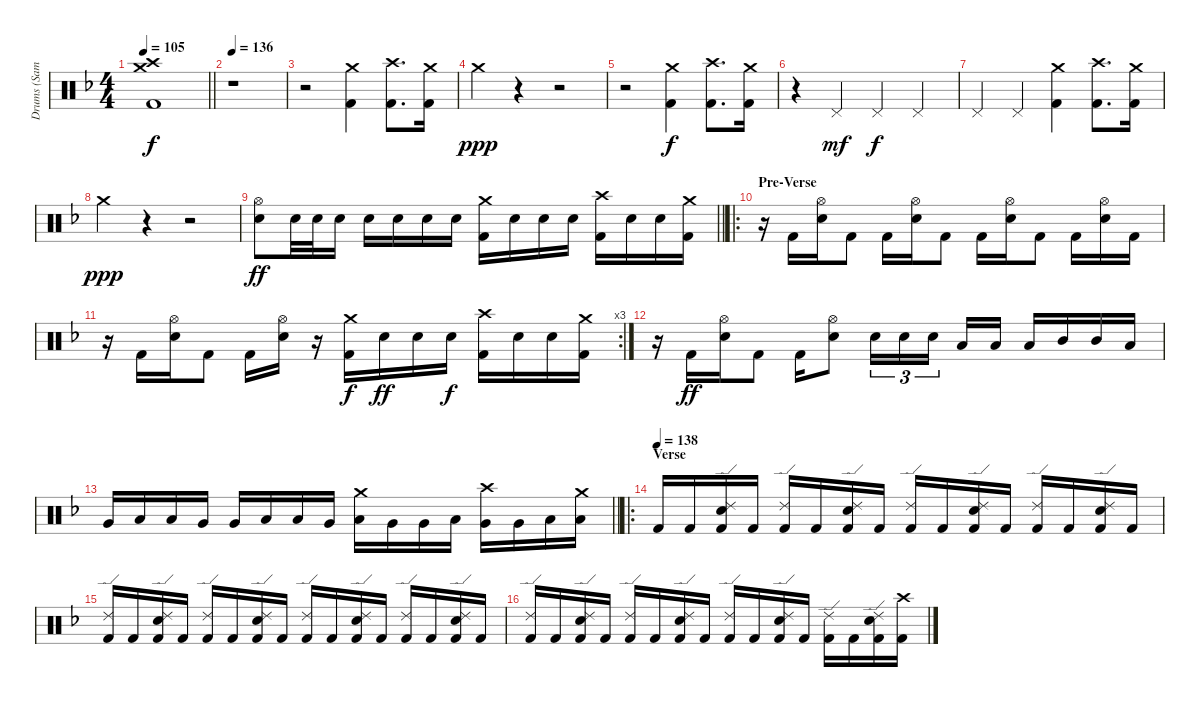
\track ("Drums (Samuelson)" "Drums (Sam") {instrument percussion}
\staff {score}
\articulation defaults
\ts (4 4)
\tempo 105
\clef neutral
\barLineRight lightlight
\ks f
("Crash medium (hit)" "Crash high (hit)" "Kick (hit) 2").1{dy f} |
\tempo 136
r.1 |
r.2 ("Crash medium (hit)" "Kick (hit) 2").4 ("Crash high (hit)" "Kick (hit) 2").8{d} ("Crash medium (hit)" "Kick (hit) 2").16 |
"Crash medium (hit)".4{dy ppp} r.4 r.2 |
r.2 ("Crash medium (hit)" "Kick (hit) 2").4{dy f} ("Crash high (hit)" "Kick (hit) 2").8{d} ("Crash medium (hit)" "Kick (hit) 2").16 |
r.4 "Pedal Hi-Hat (hit)".4{dy mf} "Pedal Hi-Hat (hit)".4{dy f} "Pedal Hi-Hat (hit)".4 |
"Pedal Hi-Hat (hit)".4 "Pedal Hi-Hat (hit)".4 ("Crash medium (hit)" "Kick (hit) 2").4 ("Crash high (hit)" "Kick (hit) 2").8{d} ("Crash medium (hit)" "Kick (hit) 2").16 |
"Crash medium (hit)".4{dy ppp} r.4 r.2 |
\barLineRight lightlight
("Hi-Hat (open)" "Snare (hit) 2").8{dy ff} "Snare (hit) 2".32 "Snare (hit) 2".32 "Snare (hit) 2".16 "Snare (hit) 2".16 "Snare (hit) 2".16 "Snare (hit) 2".16 "Snare (hit) 2".16 ("Crash medium (hit)" "Kick (hit) 2").16 "Snare (hit) 2".16 "Snare (hit) 2".16 "Snare (hit) 2".16 ("Crash high (hit)" "Kick (hit) 2").16 "Snare (hit) 2".16 "Snare (hit) 2".16 ("Crash medium (hit)" "Kick (hit) 2").16 |
\ro
\section ("" "Pre-Verse")
r.16 "Kick (hit) 2".16 ("Hi-Hat (open)" "Snare (hit) 2").16 "Kick (hit) 2".8 "Kick (hit) 2".16 ("Hi-Hat (open)" "Snare (hit) 2").16 "Kick (hit) 2".8 "Kick (hit) 2".16 ("Hi-Hat (open)" "Snare (hit) 2").16 "Kick (hit) 2".8 "Kick (hit) 2".16 ("Hi-Hat (open)" "Snare (hit) 2").16 "Kick (hit) 2".16 |
\rc 3
r.16 "Kick (hit) 2".16 ("Hi-Hat (open)" "Snare (hit) 2").16 "Kick (hit) 2".8 "Kick (hit) 2".16 ("Hi-Hat (open)" "Snare (hit) 2").16 r.16 ("Crash medium (hit)" "Kick (hit) 2").16{dy f} "Snare (hit) 2".16{dy ff} "Snare (hit) 2".16 "Snare (hit) 2".16{dy f} ("Crash high (hit)" "Kick (hit) 2").16 "Snare (hit) 2".16 "Snare (hit) 2".16 ("Crash medium (hit)" "Kick (hit) 2").16 |
r.16 "Kick (hit) 2".16{dy ff} ("Hi-Hat (open)" "Snare (hit) 2").16 "Kick (hit) 2".8 "Kick (hit) 2".16 ("Hi-Hat (open)" "Snare (hit) 2").8 "Snare (hit) 2".16{tu (3 2)} "Snare (hit) 2".16{tu (3 2)} "Snare (hit) 2".16{tu (3 2) beam splitsecondary} "Low Tom (hit)".16 "Low Tom (hit)".16 "Low Tom (hit)".16 "Mid Tom (hit)".16 "Mid Tom (hit)".16 "Low Tom (hit)".16 |
\barLineRight lightlight "Very Low Tom (hit)".16 "Low Tom (hit)".16 "Low Tom (hit)".16 "Very Low Tom (hit)".16 "Very Low Tom (hit)".16 "Low Floor Tom (hit)".16 "Low Tom (hit)".16 "Very Low Tom (hit)".16
("Crash medium (hit)" "Low Tom (hit)").16 "Very Low Tom (hit)".16 "Very Low Tom (hit)".16 "Low Floor Tom (hit)".16 ("Crash high (hit)" "Very Low Tom (hit)").16 "Very Low Tom (hit)".16 "Low Floor Tom (hit)".16 ("Crash medium (hit)" "Low Floor Tom (hit)").16 |
\ro
\section ("" "Verse")
\tempo (138)
"Kick (hit) 2".16 "Kick (hit) 2".16 ("Ride (edge) 2" "Snare (hit) 2" "Kick (hit) 2").16 "Kick (hit) 2".16 ("Ride (edge) 2" "Kick (hit) 2").16 "Kick (hit) 2".16 ("Ride (edge) 2" "Snare (hit) 2" "Kick (hit) 2").16 "Kick (hit) 2".16 ("Ride (edge) 2" "Kick (hit) 2").16 "Kick (hit) 2".16 ("Ride (edge) 2" "Snare (hit) 2" "Kick (hit) 2").16 "Kick (hit) 2".16 ("Ride (edge) 2" "Kick (hit) 2").16 "Kick (hit) 2".16 ("Ride (edge) 2" "Snare (hit) 2" "Kick (hit) 2").16 "Kick (hit) 2".16 |
("Ride (edge) 2" "Kick (hit) 2").16 "Kick (hit) 2".16 ("Ride (edge) 2" "Snare (hit) 2" "Kick (hit) 2").16 "Kick (hit) 2".16 ("Ride (edge) 2" "Kick (hit) 2").16 "Kick (hit) 2".16 ("Ride (edge) 2" "Snare (hit) 2" "Kick (hit) 2").16 "Kick (hit) 2".16 ("Ride (edge) 2" "Kick (hit) 2").16 "Kick (hit) 2".16 ("Ride (edge) 2" "Snare (hit) 2" "Kick (hit) 2").16 "Kick (hit) 2".16 ("Ride (edge) 2" "Kick (hit) 2").16 "Kick (hit) 2".16 ("Ride (edge) 2" "Snare (hit) 2" "Kick (hit) 2").16 "Kick (hit) 2".16 |
("Ride (edge) 2" "Kick (hit) 2").16 "Kick (hit) 2".16 ("Ride (edge) 2" "Snare (hit) 2" "Kick (hit) 2").16 "Kick (hit) 2".16 ("Ride (edge) 2" "Kick (hit) 2").16 "Kick (hit) 2".16 ("Ride (edge) 2" "Snare (hit) 2" "Kick (hit) 2").16 "Kick (hit) 2".16 ("Ride (edge) 2" "Kick (hit) 2").16 "Kick (hit) 2".16 ("Ride (edge) 2" "Snare (hit) 2" "Kick (hit) 2").16 "Kick (hit) 2".16 ("Ride (edge) 2" "Kick (hit) 2").16 "Kick (hit) 2".16 ("Ride (edge) 2" "Snare (hit) 2" "Kick (hit) 2").16 ("Crash high (hit)" "Kick (hit) 2").16
